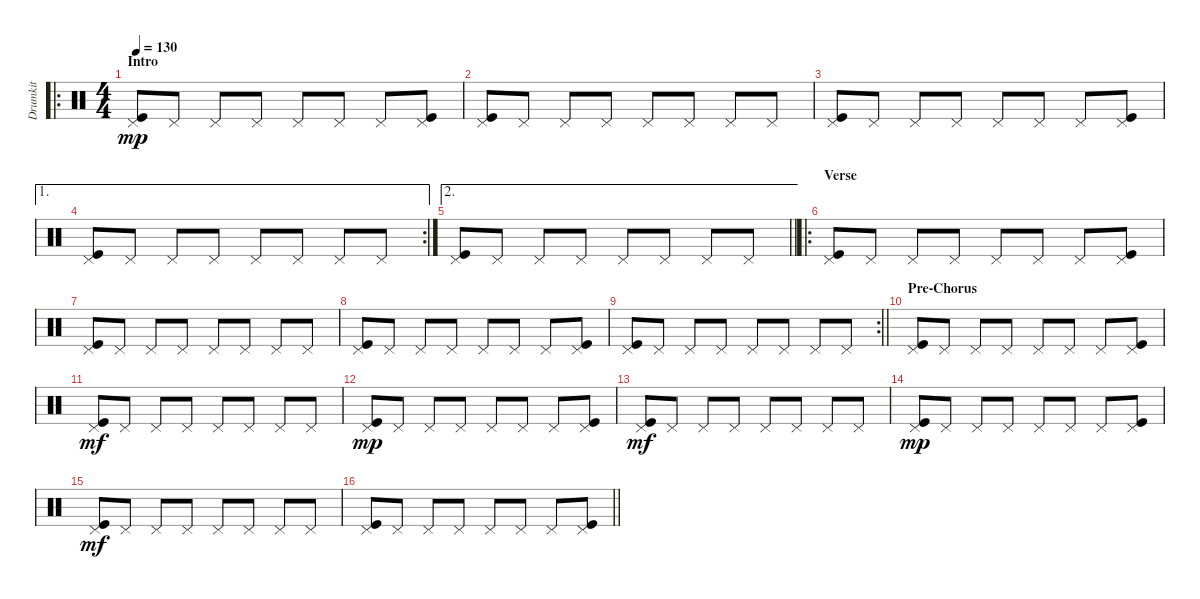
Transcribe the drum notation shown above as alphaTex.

\track ("Drumkit" "Drumkit") {instrument percussion}
\staff {score}
\articulation defaults
\ro
\ts (4 4)
\section ("" "Intro")
\tempo 130
\clef neutral
\ks c
("Kick (hit)" "Pedal Hi-Hat (hit)").8{dy mp} "Pedal Hi-Hat (hit)".8 "Pedal Hi-Hat (hit)".8 "Pedal Hi-Hat (hit)".8 "Pedal Hi-Hat (hit)".8 "Pedal Hi-Hat (hit)".8 "Pedal Hi-Hat (hit)".8 ("Kick (hit)" "Pedal Hi-Hat (hit)").8 |
("Kick (hit)" "Pedal Hi-Hat (hit)").8 "Pedal Hi-Hat (hit)".8 "Pedal Hi-Hat (hit)".8 "Pedal Hi-Hat (hit)".8 "Pedal Hi-Hat (hit)".8 "Pedal Hi-Hat (hit)".8 "Pedal Hi-Hat (hit)".8 "Pedal Hi-Hat (hit)".8 |
("Kick (hit)" "Pedal Hi-Hat (hit)").8 "Pedal Hi-Hat (hit)".8 "Pedal Hi-Hat (hit)".8 "Pedal Hi-Hat (hit)".8 "Pedal Hi-Hat (hit)".8 "Pedal Hi-Hat (hit)".8 "Pedal Hi-Hat (hit)".8 ("Kick (hit)" "Pedal Hi-Hat (hit)").8 |
\ae 1
\rc 2
("Kick (hit)" "Pedal Hi-Hat (hit)").8 "Pedal Hi-Hat (hit)".8 "Pedal Hi-Hat (hit)".8 "Pedal Hi-Hat (hit)".8 "Pedal Hi-Hat (hit)".8 "Pedal Hi-Hat (hit)".8 "Pedal Hi-Hat (hit)".8 "Pedal Hi-Hat (hit)".8 |
\ae 2
\barLineRight lightlight
("Kick (hit)" "Pedal Hi-Hat (hit)").8 "Pedal Hi-Hat (hit)".8 "Pedal Hi-Hat (hit)".8 "Pedal Hi-Hat (hit)".8 "Pedal Hi-Hat (hit)".8 "Pedal Hi-Hat (hit)".8 "Pedal Hi-Hat (hit)".8 "Pedal Hi-Hat (hit)".8 |
\ro
\section ("" "Verse")
("Kick (hit)" "Pedal Hi-Hat (hit)").8 "Pedal Hi-Hat (hit)".8 "Pedal Hi-Hat (hit)".8 "Pedal Hi-Hat (hit)".8 "Pedal Hi-Hat (hit)".8 "Pedal Hi-Hat (hit)".8 "Pedal Hi-Hat (hit)".8 ("Kick (hit)" "Pedal Hi-Hat (hit)").8 |
("Kick (hit)" "Pedal Hi-Hat (hit)").8 "Pedal Hi-Hat (hit)".8 "Pedal Hi-Hat (hit)".8 "Pedal Hi-Hat (hit)".8 "Pedal Hi-Hat (hit)".8 "Pedal Hi-Hat (hit)".8 "Pedal Hi-Hat (hit)".8 "Pedal Hi-Hat (hit)".8 |
("Kick (hit)" "Pedal Hi-Hat (hit)").8 "Pedal Hi-Hat (hit)".8 "Pedal Hi-Hat (hit)".8 "Pedal Hi-Hat (hit)".8 "Pedal Hi-Hat (hit)".8 "Pedal Hi-Hat (hit)".8 "Pedal Hi-Hat (hit)".8 ("Kick (hit)" "Pedal Hi-Hat (hit)").8 |
\rc 2
\barLineRight lightlight
("Kick (hit)" "Pedal Hi-Hat (hit)").8 "Pedal Hi-Hat (hit)".8 "Pedal Hi-Hat (hit)".8 "Pedal Hi-Hat (hit)".8 "Pedal Hi-Hat (hit)".8 "Pedal Hi-Hat (hit)".8 "Pedal Hi-Hat (hit)".8 "Pedal Hi-Hat (hit)".8 |
\section ("" "Pre-Chorus")
("Kick (hit)" "Pedal Hi-Hat (hit)").8 "Pedal Hi-Hat (hit)".8 "Pedal Hi-Hat (hit)".8 "Pedal Hi-Hat (hit)".8 "Pedal Hi-Hat (hit)".8 "Pedal Hi-Hat (hit)".8 "Pedal Hi-Hat (hit)".8 ("Kick (hit)" "Pedal Hi-Hat (hit)").8 |
("Kick (hit)" "Pedal Hi-Hat (hit)").8{dy mf} "Pedal Hi-Hat (hit)".8 "Pedal Hi-Hat (hit)".8 "Pedal Hi-Hat (hit)".8 "Pedal Hi-Hat (hit)".8 "Pedal Hi-Hat (hit)".8 "Pedal Hi-Hat (hit)".8 "Pedal Hi-Hat (hit)".8 |
("Kick (hit)" "Pedal Hi-Hat (hit)").8{dy mp} "Pedal Hi-Hat (hit)".8 "Pedal Hi-Hat (hit)".8 "Pedal Hi-Hat (hit)".8 "Pedal Hi-Hat (hit)".8 "Pedal Hi-Hat (hit)".8 "Pedal Hi-Hat (hit)".8 ("Kick (hit)" "Pedal Hi-Hat (hit)").8 |
("Kick (hit)" "Pedal Hi-Hat (hit)").8{dy mf} "Pedal Hi-Hat (hit)".8 "Pedal Hi-Hat (hit)".8 "Pedal Hi-Hat (hit)".8 "Pedal Hi-Hat (hit)".8 "Pedal Hi-Hat (hit)".8 "Pedal Hi-Hat (hit)".8 "Pedal Hi-Hat (hit)".8 |
("Kick (hit)" "Pedal Hi-Hat (hit)").8{dy mp} "Pedal Hi-Hat (hit)".8 "Pedal Hi-Hat (hit)".8 "Pedal Hi-Hat (hit)".8 "Pedal Hi-Hat (hit)".8 "Pedal Hi-Hat (hit)".8 "Pedal Hi-Hat (hit)".8 ("Kick (hit)" "Pedal Hi-Hat (hit)").8 |
("Kick (hit)" "Pedal Hi-Hat (hit)").8{dy mf} "Pedal Hi-Hat (hit)".8 "Pedal Hi-Hat (hit)".8 "Pedal Hi-Hat (hit)".8 "Pedal Hi-Hat (hit)".8 "Pedal Hi-Hat (hit)".8 "Pedal Hi-Hat (hit)".8 "Pedal Hi-Hat (hit)".8 |
\barLineRight lightlight
("Kick (hit)" "Pedal Hi-Hat (hit)").8 "Pedal Hi-Hat (hit)".8 "Pedal Hi-Hat (hit)".8 "Pedal Hi-Hat (hit)".8 "Pedal Hi-Hat (hit)".8 "Pedal Hi-Hat (hit)".8 "Pedal Hi-Hat (hit)".8 ("Kick (hit)" "Pedal Hi-Hat (hit)").8
